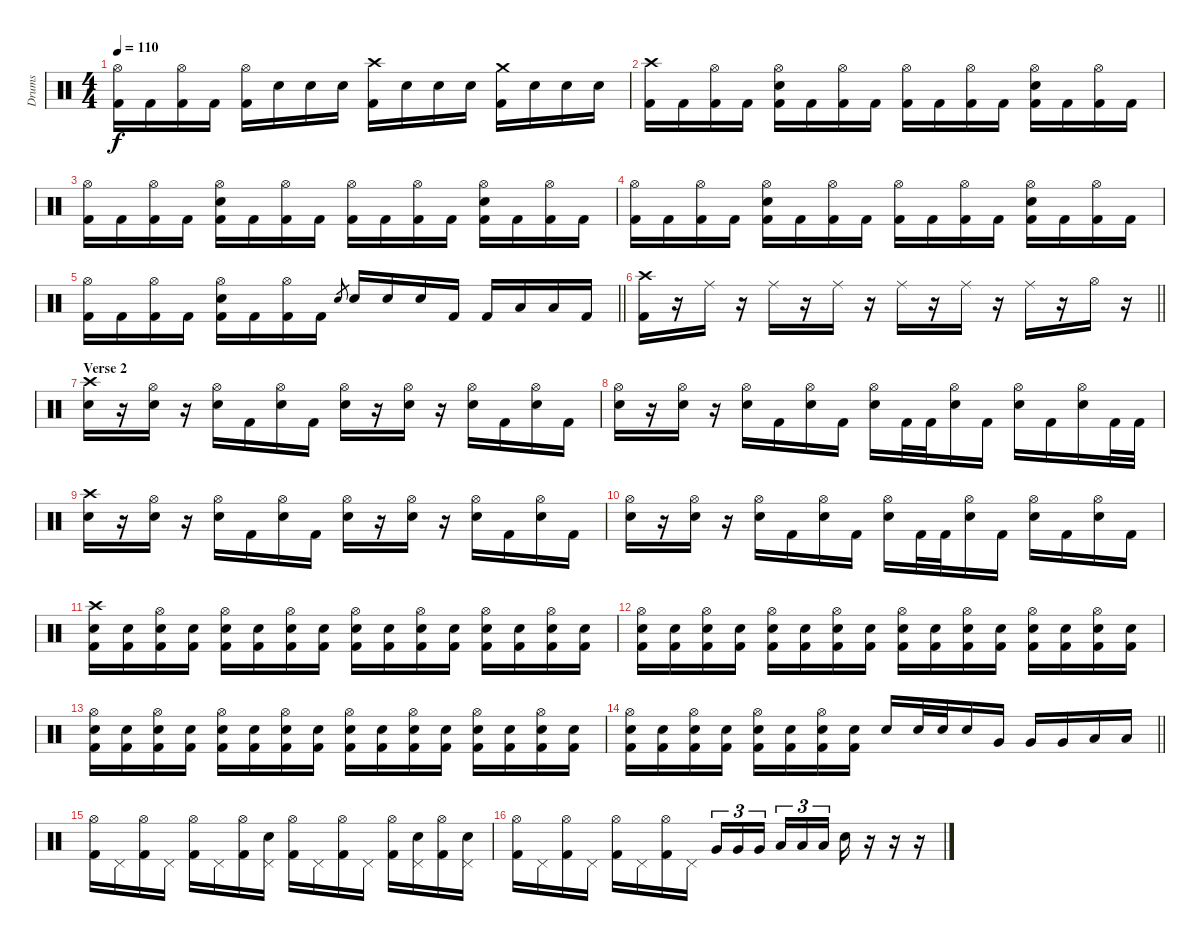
\track ("Drums" "Drums") {instrument percussion}
\staff {score}
\articulation defaults
\ts (4 4)
\tempo 110
\clef neutral
\ks c
("Hi-Hat (open)" "Kick (hit) 2").16{dy f} "Kick (hit) 2".16 ("Hi-Hat (open)" "Kick (hit) 2").16 "Kick (hit) 2".16 ("Hi-Hat (open)" "Kick (hit) 2").16 "Electric Snare (hit)".16 "Electric Snare (hit)".16 "Electric Snare (hit)".16 ("Crash high (hit)" "Kick (hit) 2").16 "Electric Snare (hit)".16 "Electric Snare (hit)".16 "Electric Snare (hit)".16 ("Crash medium (hit)" "Kick (hit) 2").16 "Electric Snare (hit)".16 "Electric Snare (hit)".16 "Electric Snare (hit)".16 |
("Crash high (hit)" "Kick (hit) 2").16 "Kick (hit) 2".16 ("Hi-Hat (open)" "Kick (hit) 2").16 "Kick (hit) 2".16 ("Hi-Hat (open)" "Kick (hit) 2" "Electric Snare (hit)").16 "Kick (hit) 2".16 ("Hi-Hat (open)" "Kick (hit) 2").16 "Kick (hit) 2".16 ("Hi-Hat (open)" "Kick (hit) 2").16 "Kick (hit) 2".16 ("Hi-Hat (open)" "Kick (hit) 2").16 "Kick (hit) 2".16 ("Hi-Hat (open)" "Kick (hit) 2" "Electric Snare (hit)").16 "Kick (hit) 2".16 ("Hi-Hat (open)" "Kick (hit) 2").16 "Kick (hit) 2".16 |
("Hi-Hat (open)" "Kick (hit) 2").16 "Kick (hit) 2".16 ("Hi-Hat (open)" "Kick (hit) 2").16 "Kick (hit) 2".16 ("Hi-Hat (open)" "Kick (hit) 2" "Electric Snare (hit)").16 "Kick (hit) 2".16 ("Hi-Hat (open)" "Kick (hit) 2").16 "Kick (hit) 2".16 ("Hi-Hat (open)" "Kick (hit) 2").16 "Kick (hit) 2".16 ("Hi-Hat (open)" "Kick (hit) 2").16 "Kick (hit) 2".16 ("Hi-Hat (open)" "Kick (hit) 2" "Electric Snare (hit)").16 "Kick (hit) 2".16 ("Hi-Hat (open)" "Kick (hit) 2").16 "Kick (hit) 2".16 |
("Hi-Hat (open)" "Kick (hit) 2").16 "Kick (hit) 2".16 ("Hi-Hat (open)" "Kick (hit) 2").16 "Kick (hit) 2".16 ("Hi-Hat (open)" "Kick (hit) 2" "Electric Snare (hit)").16 "Kick (hit) 2".16 ("Hi-Hat (open)" "Kick (hit) 2").16 "Kick (hit) 2".16 ("Hi-Hat (open)" "Kick (hit) 2").16 "Kick (hit) 2".16 ("Hi-Hat (open)" "Kick (hit) 2").16 "Kick (hit) 2".16 ("Hi-Hat (open)" "Kick (hit) 2" "Electric Snare (hit)").16 "Kick (hit) 2".16 ("Hi-Hat (open)" "Kick (hit) 2").16 "Kick (hit) 2".16 |
\barLineRight lightlight
("Hi-Hat (open)" "Kick (hit) 2").16 "Kick (hit) 2".16 ("Hi-Hat (open)" "Kick (hit) 2").16 "Kick (hit) 2".16 ("Hi-Hat (open)" "Kick (hit) 2" "Electric Snare (hit)").16 "Kick (hit) 2".16 ("Hi-Hat (open)" "Kick (hit) 2").16 "Kick (hit) 2".16 "Electric Snare (hit)".8{gr} "Electric Snare (hit)".16 "Electric Snare (hit)".16 "Electric Snare (hit)".16 "Kick (hit) 2".16 "Kick (hit) 2".16 "Low Floor Tom (hit)".16 "Low Floor Tom (hit)".16 "Kick (hit) 2".16 |
\section ("" "")
\barLineRight lightlight
("Crash high (hit)" "Kick (hit) 2").16 r.16 "Ride (middle)".16 r.16 "Ride (middle)".16 r.16 "Ride (middle)".16 r.16 "Ride (middle)".16 r.16 "Ride (middle)".16 r.16 "Ride (middle)".16 r.16 "Hi-Hat (open)".16 r.16 |
\section ("" "Verse 2")
("Crash high (hit)" "Electric Snare (hit)").16 r.16 ("Hi-Hat (open)" "Electric Snare (hit)").16 r.16 ("Hi-Hat (open)" "Electric Snare (hit)").16 "Kick (hit) 2".16 ("Hi-Hat (open)" "Electric Snare (hit)").16 "Kick (hit) 2".16 ("Hi-Hat (open)" "Electric Snare (hit)").16 r.16 ("Hi-Hat (open)" "Electric Snare (hit)").16 r.16 ("Hi-Hat (open)" "Electric Snare (hit)").16 "Kick (hit) 2".16 ("Hi-Hat (open)" "Electric Snare (hit)").16 "Kick (hit) 2".16 |
("Hi-Hat (open)" "Electric Snare (hit)").16 r.16 ("Hi-Hat (open)" "Electric Snare (hit)").16 r.16 ("Hi-Hat (open)" "Electric Snare (hit)").16 "Kick (hit) 2".16 ("Hi-Hat (open)" "Electric Snare (hit)").16 "Kick (hit) 2".16 ("Hi-Hat (open)" "Electric Snare (hit)").16 "Kick (hit) 2".32 "Kick (hit) 2".32 ("Hi-Hat (open)" "Electric Snare (hit)").16 "Kick (hit) 2".16 ("Hi-Hat (open)" "Electric Snare (hit)").16 "Kick (hit) 2".16 ("Hi-Hat (open)" "Electric Snare (hit)").16 "Kick (hit) 2".32 "Kick (hit) 2".32 |
("Crash high (hit)" "Electric Snare (hit)").16 r.16 ("Hi-Hat (open)" "Electric Snare (hit)").16 r.16 ("Hi-Hat (open)" "Electric Snare (hit)").16 "Kick (hit) 2".16 ("Hi-Hat (open)" "Electric Snare (hit)").16 "Kick (hit) 2".16 ("Hi-Hat (open)" "Electric Snare (hit)").16 r.16 ("Hi-Hat (open)" "Electric Snare (hit)").16 r.16 ("Hi-Hat (open)" "Electric Snare (hit)").16 "Kick (hit) 2".16 ("Hi-Hat (open)" "Electric Snare (hit)").16 "Kick (hit) 2".16 |
("Hi-Hat (open)" "Electric Snare (hit)").16 r.16 ("Hi-Hat (open)" "Electric Snare (hit)").16 r.16 ("Hi-Hat (open)" "Electric Snare (hit)").16 "Kick (hit) 2".16 ("Hi-Hat (open)" "Electric Snare (hit)").16 "Kick (hit) 2".16 ("Hi-Hat (open)" "Electric Snare (hit)").16 "Kick (hit) 2".32 "Kick (hit) 2".32 ("Hi-Hat (open)" "Electric Snare (hit)").16 "Kick (hit) 2".16 ("Hi-Hat (open)" "Electric Snare (hit)").16 "Kick (hit) 2".16 ("Hi-Hat (open)" "Electric Snare (hit)").16 "Kick (hit) 2".16 |
("Crash high (hit)" "Electric Snare (hit)" "Kick (hit) 2").16 ("Electric Snare (hit)" "Kick (hit) 2").16 ("Hi-Hat (open)" "Electric Snare (hit)" "Kick (hit) 2").16 ("Electric Snare (hit)" "Kick (hit) 2").16 ("Hi-Hat (open)" "Electric Snare (hit)" "Kick (hit) 2").16 ("Electric Snare (hit)" "Kick (hit) 2").16 ("Hi-Hat (open)" "Electric Snare (hit)" "Kick (hit) 2").16 ("Electric Snare (hit)" "Kick (hit) 2").16 ("Hi-Hat (open)" "Electric Snare (hit)" "Kick (hit) 2").16 ("Electric Snare (hit)" "Kick (hit) 2").16 ("Hi-Hat (open)" "Electric Snare (hit)" "Kick (hit) 2").16 ("Electric Snare (hit)" "Kick (hit) 2").16 ("Hi-Hat (open)" "Electric Snare (hit)" "Kick (hit) 2").16 ("Electric Snare (hit)" "Kick (hit) 2").16 ("Hi-Hat (open)" "Electric Snare (hit)" "Kick (hit) 2").16 ("Electric Snare (hit)" "Kick (hit) 2").16 |
("Hi-Hat (open)" "Electric Snare (hit)" "Kick (hit) 2").16 ("Electric Snare (hit)" "Kick (hit) 2").16 ("Hi-Hat (open)" "Electric Snare (hit)" "Kick (hit) 2").16 ("Electric Snare (hit)" "Kick (hit) 2").16 ("Hi-Hat (open)" "Electric Snare (hit)" "Kick (hit) 2").16 ("Electric Snare (hit)" "Kick (hit) 2").16 ("Hi-Hat (open)" "Electric Snare (hit)" "Kick (hit) 2").16 ("Electric Snare (hit)" "Kick (hit) 2").16 ("Hi-Hat (open)" "Electric Snare (hit)" "Kick (hit) 2").16 ("Electric Snare (hit)" "Kick (hit) 2").16 ("Hi-Hat (open)" "Electric Snare (hit)" "Kick (hit) 2").16 ("Electric Snare (hit)" "Kick (hit) 2").16 ("Hi-Hat (open)" "Electric Snare (hit)" "Kick (hit) 2").16 ("Electric Snare (hit)" "Kick (hit) 2").16 ("Hi-Hat (open)" "Electric Snare (hit)" "Kick (hit) 2").16 ("Electric Snare (hit)" "Kick (hit) 2").16 |
("Hi-Hat (open)" "Electric Snare (hit)" "Kick (hit) 2").16 ("Electric Snare (hit)" "Kick (hit) 2").16 ("Hi-Hat (open)" "Electric Snare (hit)" "Kick (hit) 2").16 ("Electric Snare (hit)" "Kick (hit) 2").16 ("Hi-Hat (open)" "Electric Snare (hit)" "Kick (hit) 2").16 ("Electric Snare (hit)" "Kick (hit) 2").16 ("Hi-Hat (open)" "Electric Snare (hit)" "Kick (hit) 2").16 ("Electric Snare (hit)" "Kick (hit) 2").16 ("Hi-Hat (open)" "Electric Snare (hit)" "Kick (hit) 2").16 ("Electric Snare (hit)" "Kick (hit) 2").16 ("Hi-Hat (open)" "Electric Snare (hit)" "Kick (hit) 2").16 ("Electric Snare (hit)" "Kick (hit) 2").16 ("Hi-Hat (open)" "Electric Snare (hit)" "Kick (hit) 2").16 ("Electric Snare (hit)" "Kick (hit) 2").16 ("Hi-Hat (open)" "Electric Snare (hit)" "Kick (hit) 2").16 ("Electric Snare (hit)" "Kick (hit) 2").16 |
\barLineRight lightlight
("Hi-Hat (open)" "Electric Snare (hit)" "Kick (hit) 2").16 ("Electric Snare (hit)" "Kick (hit) 2").16 ("Hi-Hat (open)" "Electric Snare (hit)" "Kick (hit) 2").16 ("Electric Snare (hit)" "Kick (hit) 2").16 ("Hi-Hat (open)" "Electric Snare (hit)" "Kick (hit) 2").16 ("Electric Snare (hit)" "Kick (hit) 2").16 ("Hi-Hat (open)" "Electric Snare (hit)" "Kick (hit) 2").16 ("Electric Snare (hit)" "Kick (hit) 2").16 "Electric Snare (hit)".16 "Electric Snare (hit)".32 "Electric Snare (hit)".32 "Electric Snare (hit)".16 "Very Low Tom (hit)".16 "Very Low Tom (hit)".16 "Very Low Tom (hit)".16 "Low Floor Tom (hit)".16 "Low Floor Tom (hit)".16 |
\section ("" "")
("Hi-Hat (open)" "Kick (hit) 2").16 "Pedal Hi-Hat (hit)".16 ("Hi-Hat (open)" "Kick (hit) 2").16 "Pedal Hi-Hat (hit)".16 ("Hi-Hat (open)" "Kick (hit) 2").16 "Pedal Hi-Hat (hit)".16 ("Hi-Hat (open)" "Kick (hit) 2").16 ("Pedal Hi-Hat (hit)" "Electric Snare (hit)").16 ("Hi-Hat (open)" "Kick (hit) 2").16 "Pedal Hi-Hat (hit)".16 ("Hi-Hat (open)" "Kick (hit) 2").16 "Pedal Hi-Hat (hit)".16 ("Hi-Hat (open)" "Kick (hit) 2").16 ("Pedal Hi-Hat (hit)" "Electric Snare (hit)").16 ("Hi-Hat (open)" "Kick (hit) 2").16 ("Pedal Hi-Hat (hit)" "Electric Snare (hit)").16 |
("Hi-Hat (open)" "Kick (hit) 2").16 "Pedal Hi-Hat (hit)".16 ("Hi-Hat (open)" "Kick (hit) 2").16 "Pedal Hi-Hat (hit)".16 ("Hi-Hat (open)" "Kick (hit) 2").16 "Pedal Hi-Hat (hit)".16 ("Hi-Hat (open)" "Kick (hit) 2").16 "Pedal Hi-Hat (hit)".16 "Very Low Tom (hit)".16{tu (3 2)} "Very Low Tom (hit)".16{tu (3 2)} "Very Low Tom (hit)".16{tu (3 2) beam splitsecondary} "Low Floor Tom (hit)".16{tu (3 2)} "Low Floor Tom (hit)".16{tu (3 2)} "Low Floor Tom (hit)".16{tu (3 2)} "Electric Snare (hit)".16 r.16 r.16 r.16
